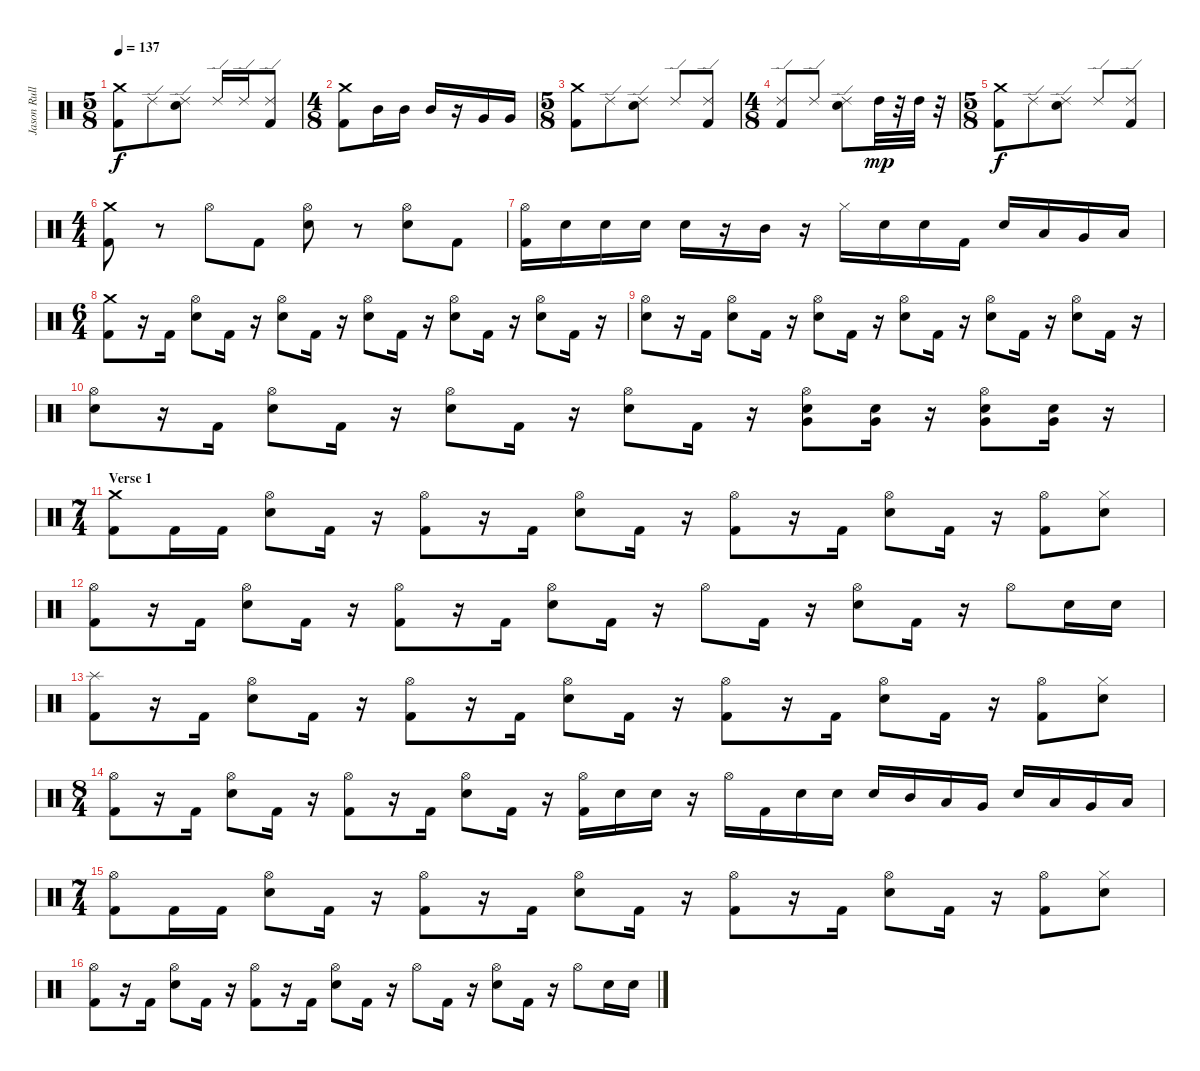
\track ("Jason Rullo" "Jason Rull") {instrument percussion}
\staff {score}
\articulation defaults
\ts (5 8)
\tempo 137
\clef neutral
\ks c
("Crash medium (hit)" "Kick (hit) 2").8{dy f} "Ride (edge) 2".8 ("Ride (edge) 2" "Electric Snare (hit)").8 "Ride (edge) 2".16 "Ride (edge) 2".16 ("Ride (edge) 2" "Kick (hit) 2").8 |
\ts (4 8)
("Crash medium (hit)" "Kick (hit) 2").8 "Mid Tom (hit)".16 "Mid Tom (hit)".16 "Mid Tom (hit)".16 r.16 "Very Low Tom (hit)".16 "Very Low Tom (hit)".16 |
\ts (5 8)
("Crash medium (hit)" "Kick (hit) 2").8 "Ride (edge) 2".8 ("Ride (edge) 2" "Electric Snare (hit)").8 "Ride (edge) 2".8 ("Ride (edge) 2" "Kick (hit) 2").8 |
\ts (4 8)
("Ride (edge) 2" "Kick (hit) 2").8 "Ride (edge) 2".8 ("Ride (edge) 2" "Electric Snare (hit)").8 "High Tom (hit)".32{dy mp} r.32 "High Tom (hit)".32 r.32 |
\ts (5 8)
("Crash medium (hit)" "Kick (hit) 2").8{dy f} "Ride (edge) 2".8 ("Ride (edge) 2" "Electric Snare (hit)").8 "Ride (edge) 2".8 ("Ride (edge) 2" "Kick (hit) 2").8 |
\ts (4 4)
("Crash medium (hit)" "Kick (hit) 2").8 r.8 "Hi-Hat (open)".8 "Kick (hit) 2".8 ("Hi-Hat (open)" "Electric Snare (hit)").8 r.8 ("Hi-Hat (open)" "Electric Snare (hit)").8 "Kick (hit) 2".8 |
("Hi-Hat (open)" "Kick (hit) 2").16 "Electric Snare (hit)".16 "Electric Snare (hit)".16 "Electric Snare (hit)".16 "Electric Snare (hit)".16 r.16 "Mid Tom (hit)".16 r.16 "Hi-Hat (closed)".16 "Electric Snare (hit)".16 "Electric Snare (hit)".16 "Kick (hit) 2".16 "Electric Snare (hit)".16 "Low Tom (hit)".16 "Very Low Tom (hit)".16 "Low Floor Tom (hit)".16 |
\ts (6 4)
("Crash medium (hit)" "Kick (hit) 2").8 r.16 "Kick (hit) 2".16 ("Hi-Hat (open)" "Electric Snare (hit)").8 "Kick (hit) 2".16 r.16 ("Hi-Hat (open)" "Electric Snare (hit)").8 "Kick (hit) 2".16 r.16 ("Hi-Hat (open)" "Electric Snare (hit)").8 "Kick (hit) 2".16 r.16 ("Hi-Hat (open)" "Electric Snare (hit)").8 "Kick (hit) 2".16 r.16 ("Hi-Hat (open)" "Electric Snare (hit)").8 "Kick (hit) 2".16 r.16 |
("Electric Snare (hit)" "Hi-Hat (open)").8 r.16 "Kick (hit) 2".16 ("Hi-Hat (open)" "Electric Snare (hit)").8 "Kick (hit) 2".16 r.16 ("Hi-Hat (open)" "Electric Snare (hit)").8 "Kick (hit) 2".16 r.16 ("Hi-Hat (open)" "Electric Snare (hit)").8 "Kick (hit) 2".16 r.16 ("Hi-Hat (open)" "Electric Snare (hit)").8 "Kick (hit) 2".16 r.16 ("Hi-Hat (open)" "Electric Snare (hit)").8 "Kick (hit) 2".16 r.16 |
("Electric Snare (hit)" "Hi-Hat (open)").8 r.16 "Kick (hit) 2".16 ("Hi-Hat (open)" "Electric Snare (hit)").8 "Kick (hit) 2".16 r.16 ("Hi-Hat (open)" "Electric Snare (hit)").8 "Kick (hit) 2".16 r.16 ("Hi-Hat (open)" "Electric Snare (hit)").8 "Kick (hit) 2".16 r.16 ("Electric Snare (hit)" "Very Low Tom (hit)" "Hi-Hat (open)").8 ("Electric Snare (hit)" "Very Low Tom (hit)").16 r.16 ("Electric Snare (hit)" "Very Low Tom (hit)" "Hi-Hat (open)").8 ("Electric Snare (hit)" "Very Low Tom (hit)").16 r.16 |
\ts (7 4)
\section ("" "Verse 1")
("Crash medium (hit)" "Kick (hit) 2").8 "Kick (hit) 2".16 "Kick (hit) 2".16 ("Hi-Hat (open)" "Electric Snare (hit)").8 "Kick (hit) 2".16 r.16 ("Hi-Hat (open)" "Kick (hit) 2").8 r.16 "Kick (hit) 2".16 ("Hi-Hat (open)" "Electric Snare (hit)").8 "Kick (hit) 2".16 r.16 ("Hi-Hat (open)" "Kick (hit) 2").8 r.16 "Kick (hit) 2".16 ("Hi-Hat (open)" "Electric Snare (hit)").8 "Kick (hit) 2".16 r.16 ("Hi-Hat (open)" "Kick (hit) 2").8 ("Hi-Hat (closed)" "Electric Snare (hit)").8 |
("Hi-Hat (open)" "Kick (hit) 2").8 r.16 "Kick (hit) 2".16 ("Hi-Hat (open)" "Electric Snare (hit)").8 "Kick (hit) 2".16 r.16 ("Hi-Hat (open)" "Kick (hit) 2").8 r.16 "Kick (hit) 2".16 ("Hi-Hat (open)" "Electric Snare (hit)").8 "Kick (hit) 2".16 r.16 "Hi-Hat (open)".8 "Kick (hit) 2".16 r.16 ("Hi-Hat (open)" "Electric Snare (hit)").8 "Kick (hit) 2".16 r.16 "Hi-Hat (open)".8 "Electric Snare (hit)".16 "Electric Snare (hit)".16 |
("Splash (hit)" "Kick (hit) 2").8 r.16 "Kick (hit) 2".16 ("Hi-Hat (open)" "Electric Snare (hit)").8 "Kick (hit) 2".16 r.16 ("Hi-Hat (open)" "Kick (hit) 2").8 r.16 "Kick (hit) 2".16 ("Hi-Hat (open)" "Electric Snare (hit)").8 "Kick (hit) 2".16 r.16 ("Hi-Hat (open)" "Kick (hit) 2").8 r.16 "Kick (hit) 2".16 ("Hi-Hat (open)" "Electric Snare (hit)").8 "Kick (hit) 2".16 r.16 ("Hi-Hat (open)" "Kick (hit) 2").8 ("Hi-Hat (closed)" "Electric Snare (hit)").8 |
\ts (8 4)
("Hi-Hat (open)" "Kick (hit) 2").8 r.16 "Kick (hit) 2".16 ("Hi-Hat (open)" "Electric Snare (hit)").8 "Kick (hit) 2".16 r.16 ("Hi-Hat (open)" "Kick (hit) 2").8 r.16 "Kick (hit) 2".16 ("Hi-Hat (open)" "Electric Snare (hit)").8 "Kick (hit) 2".16 r.16 ("Hi-Hat (open)" "Kick (hit) 2").16 "Electric Snare (hit)".16 "Electric Snare (hit)".16 r.16 "Hi-Hat (open)".16 "Kick (hit) 2".16 "Electric Snare (hit)".16 "Electric Snare (hit)".16 "Electric Snare (hit)".16 "Mid Tom (hit)".16 "Low Tom (hit)".16 "Very Low Tom (hit)".16 "Electric Snare (hit)".16 "Low Tom (hit)".16 "Very Low Tom (hit)".16 "Low Floor Tom (hit)".16 |
\ts (7 4)
("Hi-Hat (open)" "Kick (hit) 2").8 "Kick (hit) 2".16 "Kick (hit) 2".16 ("Hi-Hat (open)" "Electric Snare (hit)").8 "Kick (hit) 2".16 r.16 ("Hi-Hat (open)" "Kick (hit) 2").8 r.16 "Kick (hit) 2".16 ("Hi-Hat (open)" "Electric Snare (hit)").8 "Kick (hit) 2".16 r.16 ("Hi-Hat (open)" "Kick (hit) 2").8 r.16 "Kick (hit) 2".16 ("Hi-Hat (open)" "Electric Snare (hit)").8 "Kick (hit) 2".16 r.16 ("Hi-Hat (open)" "Kick (hit) 2").8 ("Hi-Hat (closed)" "Electric Snare (hit)").8 |
("Hi-Hat (open)" "Kick (hit) 2").8 r.16 "Kick (hit) 2".16 ("Hi-Hat (open)" "Electric Snare (hit)").8 "Kick (hit) 2".16 r.16 ("Hi-Hat (open)" "Kick (hit) 2").8 r.16 "Kick (hit) 2".16 ("Hi-Hat (open)" "Electric Snare (hit)").8 "Kick (hit) 2".16 r.16 "Hi-Hat (open)".8 "Kick (hit) 2".16 r.16 ("Hi-Hat (open)" "Electric Snare (hit)").8 "Kick (hit) 2".16 r.16 "Hi-Hat (open)".8 "Electric Snare (hit)".16 "Electric Snare (hit)".16
